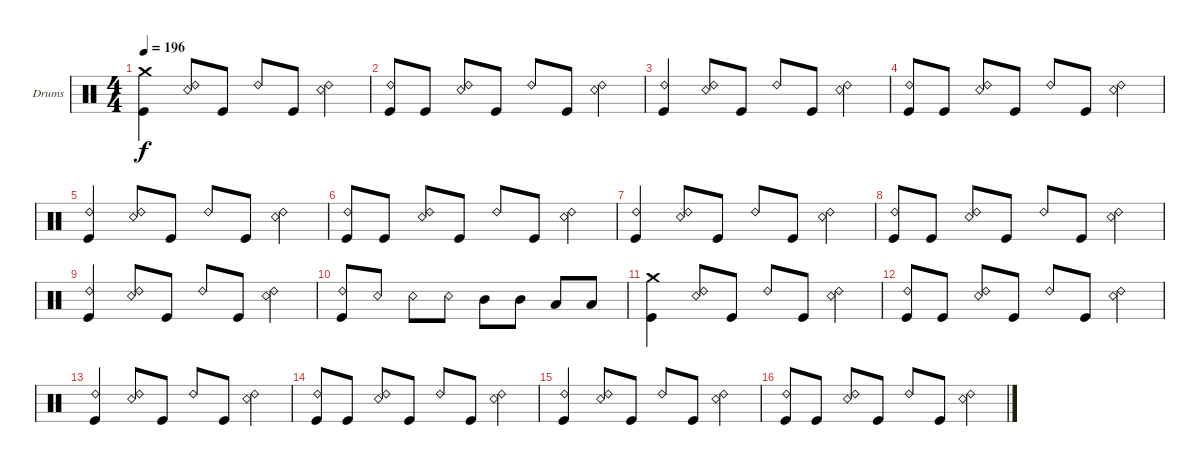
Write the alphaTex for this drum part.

\defaultSystemsLayout 4
\bracketExtendMode groupsimilarinstruments
\firstSystemTrackNameOrientation horizontal
\otherSystemsTrackNameOrientation horizontal
\track ("Nao - Drums" "Drums") {instrument percussion}
\staff {score}
\articulation defaults
\ts (4 4)
\tempo 196
\clef neutral
\ks c
("Crash medium (hit)" "Kick (hit)").4{dy f} ("Snare (rim shot)" "Ride (bell) 2").8 "Kick (hit)".8 "Ride (bell) 2".8 "Kick (hit)".8 ("Snare (rim shot)" "Ride (bell) 2").4 |
("Kick (hit)" "Ride (bell) 2").8 "Kick (hit)".8 ("Snare (rim shot)" "Ride (bell) 2").8 "Kick (hit)".8 "Ride (bell) 2".8 "Kick (hit)".8 ("Snare (rim shot)" "Ride (bell) 2").4 |
("Kick (hit)" "Ride (bell) 2").4 ("Snare (rim shot)" "Ride (bell) 2").8 "Kick (hit)".8 "Ride (bell) 2".8 "Kick (hit)".8 ("Snare (rim shot)" "Ride (bell) 2").4 |
("Kick (hit)" "Ride (bell) 2").8 "Kick (hit)".8 ("Snare (rim shot)" "Ride (bell) 2").8 "Kick (hit)".8 "Ride (bell) 2".8 "Kick (hit)".8 ("Snare (rim shot)" "Ride (bell) 2").4 |
("Kick (hit)" "Ride (bell) 2").4 ("Snare (rim shot)" "Ride (bell) 2").8 "Kick (hit)".8 "Ride (bell) 2".8 "Kick (hit)".8 ("Snare (rim shot)" "Ride (bell) 2").4 |
("Kick (hit)" "Ride (bell) 2").8 "Kick (hit)".8 ("Snare (rim shot)" "Ride (bell) 2").8 "Kick (hit)".8 "Ride (bell) 2".8 "Kick (hit)".8 ("Snare (rim shot)" "Ride (bell) 2").4 |
("Kick (hit)" "Ride (bell) 2").4 ("Snare (rim shot)" "Ride (bell) 2").8 "Kick (hit)".8 "Ride (bell) 2".8 "Kick (hit)".8 ("Snare (rim shot)" "Ride (bell) 2").4 |
("Kick (hit)" "Ride (bell) 2").8 "Kick (hit)".8 ("Snare (rim shot)" "Ride (bell) 2").8 "Kick (hit)".8 "Ride (bell) 2".8 "Kick (hit)".8 ("Snare (rim shot)" "Ride (bell) 2").4 |
("Kick (hit)" "Ride (bell) 2").4 ("Snare (rim shot)" "Ride (bell) 2").8 "Kick (hit)".8 "Ride (bell) 2".8 "Kick (hit)".8 ("Snare (rim shot)" "Ride (bell) 2").4 |
("Kick (hit)" "Ride (bell) 2").8 "Snare (rim shot)".8 "Snare (rim shot)".8 "Snare (rim shot)".8 "Mid Tom (hit)".8 "Mid Tom (hit)".8 "Low Tom (hit)".8 "Low Tom (hit)".8 |
("Kick (hit)" "Crash medium (hit)").4 ("Snare (rim shot)" "Ride (bell) 2").8 "Kick (hit)".8 "Ride (bell) 2".8 "Kick (hit)".8 ("Snare (rim shot)" "Ride (bell) 2").4 |
("Kick (hit)" "Ride (bell) 2").8 "Kick (hit)".8 ("Snare (rim shot)" "Ride (bell) 2").8 "Kick (hit)".8 "Ride (bell) 2".8 "Kick (hit)".8 ("Snare (rim shot)" "Ride (bell) 2").4 |
("Kick (hit)" "Ride (bell) 2").4 ("Snare (rim shot)" "Ride (bell) 2").8 "Kick (hit)".8 "Ride (bell) 2".8 "Kick (hit)".8 ("Snare (rim shot)" "Ride (bell) 2").4 |
("Kick (hit)" "Ride (bell) 2").8 "Kick (hit)".8 ("Snare (rim shot)" "Ride (bell) 2").8 "Kick (hit)".8 "Ride (bell) 2".8 "Kick (hit)".8 ("Snare (rim shot)" "Ride (bell) 2").4 |
("Kick (hit)" "Ride (bell) 2").4 ("Snare (rim shot)" "Ride (bell) 2").8 "Kick (hit)".8 "Ride (bell) 2".8 "Kick (hit)".8 ("Snare (rim shot)" "Ride (bell) 2").4 |
("Kick (hit)" "Ride (bell) 2").8 "Kick (hit)".8 ("Snare (rim shot)" "Ride (bell) 2").8 "Kick (hit)".8 "Ride (bell) 2".8 "Kick (hit)".8 ("Snare (rim shot)" "Ride (bell) 2").4
